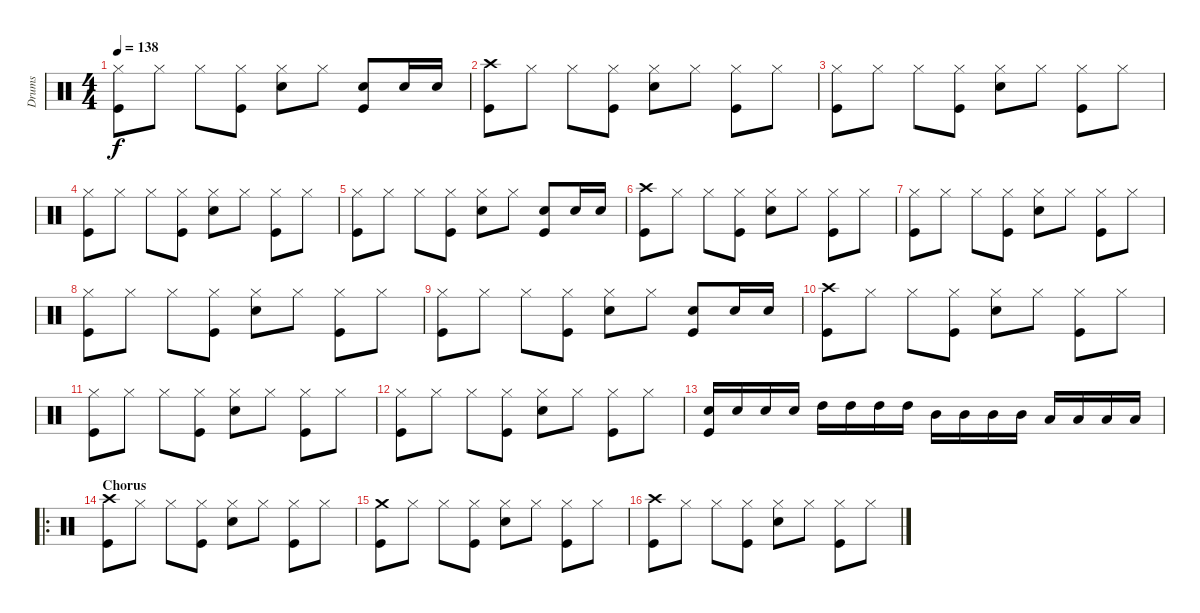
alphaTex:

\track ("Drums" "Drums") {instrument percussion}
\staff {score}
\articulation defaults
\ts (4 4)
\tempo 138
\clef neutral
\ks c
("Hi-Hat (closed)" "Kick (hit)").8{dy f} "Hi-Hat (closed)".8 "Hi-Hat (closed)".8 ("Hi-Hat (closed)" "Kick (hit)").8 ("Hi-Hat (closed)" "Snare (hit) 2").8 "Hi-Hat (closed)".8 ("Snare (hit) 2" "Kick (hit)").8 "Snare (hit) 2".16 "Snare (hit) 2".16 |
("Crash high (hit)" "Kick (hit)").8 "Hi-Hat (closed)".8 "Hi-Hat (closed)".8 ("Hi-Hat (closed)" "Kick (hit)").8 ("Hi-Hat (closed)" "Snare (hit) 2").8 "Hi-Hat (closed)".8 ("Hi-Hat (closed)" "Kick (hit)").8 "Hi-Hat (closed)".8 |
("Hi-Hat (closed)" "Kick (hit)").8 "Hi-Hat (closed)".8 "Hi-Hat (closed)".8 ("Hi-Hat (closed)" "Kick (hit)").8 ("Hi-Hat (closed)" "Snare (hit) 2").8 "Hi-Hat (closed)".8 ("Hi-Hat (closed)" "Kick (hit)").8 "Hi-Hat (closed)".8 |
("Hi-Hat (closed)" "Kick (hit)").8 "Hi-Hat (closed)".8 "Hi-Hat (closed)".8 ("Hi-Hat (closed)" "Kick (hit)").8 ("Hi-Hat (closed)" "Snare (hit) 2").8 "Hi-Hat (closed)".8 ("Hi-Hat (closed)" "Kick (hit)").8 "Hi-Hat (closed)".8 |
("Hi-Hat (closed)" "Kick (hit)").8 "Hi-Hat (closed)".8 "Hi-Hat (closed)".8 ("Hi-Hat (closed)" "Kick (hit)").8 ("Hi-Hat (closed)" "Snare (hit) 2").8 "Hi-Hat (closed)".8 ("Snare (hit) 2" "Kick (hit)").8 "Snare (hit) 2".16 "Snare (hit) 2".16 |
("Crash high (hit)" "Kick (hit)").8 "Hi-Hat (closed)".8 "Hi-Hat (closed)".8 ("Hi-Hat (closed)" "Kick (hit)").8 ("Hi-Hat (closed)" "Snare (hit) 2").8 "Hi-Hat (closed)".8 ("Hi-Hat (closed)" "Kick (hit)").8 "Hi-Hat (closed)".8 |
("Hi-Hat (closed)" "Kick (hit)").8 "Hi-Hat (closed)".8 "Hi-Hat (closed)".8 ("Hi-Hat (closed)" "Kick (hit)").8 ("Hi-Hat (closed)" "Snare (hit) 2").8 "Hi-Hat (closed)".8 ("Hi-Hat (closed)" "Kick (hit)").8 "Hi-Hat (closed)".8 |
("Hi-Hat (closed)" "Kick (hit)").8 "Hi-Hat (closed)".8 "Hi-Hat (closed)".8 ("Hi-Hat (closed)" "Kick (hit)").8 ("Hi-Hat (closed)" "Snare (hit) 2").8 "Hi-Hat (closed)".8 ("Hi-Hat (closed)" "Kick (hit)").8 "Hi-Hat (closed)".8 |
("Hi-Hat (closed)" "Kick (hit)").8 "Hi-Hat (closed)".8 "Hi-Hat (closed)".8 ("Hi-Hat (closed)" "Kick (hit)").8 ("Hi-Hat (closed)" "Snare (hit) 2").8 "Hi-Hat (closed)".8 ("Snare (hit) 2" "Kick (hit)").8 "Snare (hit) 2".16 "Snare (hit) 2".16 |
("Crash high (hit)" "Kick (hit)").8 "Hi-Hat (closed)".8 "Hi-Hat (closed)".8 ("Hi-Hat (closed)" "Kick (hit)").8 ("Hi-Hat (closed)" "Snare (hit) 2").8 "Hi-Hat (closed)".8 ("Hi-Hat (closed)" "Kick (hit)").8 "Hi-Hat (closed)".8 |
("Hi-Hat (closed)" "Kick (hit)").8 "Hi-Hat (closed)".8 "Hi-Hat (closed)".8 ("Hi-Hat (closed)" "Kick (hit)").8 ("Hi-Hat (closed)" "Snare (hit) 2").8 "Hi-Hat (closed)".8 ("Hi-Hat (closed)" "Kick (hit)").8 "Hi-Hat (closed)".8 |
("Hi-Hat (closed)" "Kick (hit)").8 "Hi-Hat (closed)".8 "Hi-Hat (closed)".8 ("Hi-Hat (closed)" "Kick (hit)").8 ("Hi-Hat (closed)" "Snare (hit) 2").8 "Hi-Hat (closed)".8 ("Hi-Hat (closed)" "Kick (hit)").8 "Hi-Hat (closed)".8 |
("Snare (hit) 2" "Kick (hit)").16 "Snare (hit) 2".16 "Snare (hit) 2".16 "Snare (hit) 2".16 "High Tom (hit)".16 "High Tom (hit)".16 "High Tom (hit)".16 "High Tom (hit)".16 "Mid Tom (hit)".16 "Mid Tom (hit)".16 "Mid Tom (hit)".16 "Mid Tom (hit)".16 "Low Tom (hit)".16 "Low Tom (hit)".16 "Low Tom (hit)".16 "Low Tom (hit)".16 |
\ro
\section ("" "Chorus")
("Crash high (hit)" "Kick (hit)").8 "Hi-Hat (closed)".8 "Hi-Hat (closed)".8 ("Hi-Hat (closed)" "Kick (hit)").8 ("Hi-Hat (closed)" "Snare (hit) 2").8 "Hi-Hat (closed)".8 ("Hi-Hat (closed)" "Kick (hit)").8 "Hi-Hat (closed)".8 |
("Crash medium (hit)" "Kick (hit)").8 "Hi-Hat (closed)".8 "Hi-Hat (closed)".8 ("Hi-Hat (closed)" "Kick (hit)").8 ("Hi-Hat (closed)" "Snare (hit) 2").8 "Hi-Hat (closed)".8 ("Hi-Hat (closed)" "Kick (hit)").8 "Hi-Hat (closed)".8 |
("Crash high (hit)" "Kick (hit)").8 "Hi-Hat (closed)".8 "Hi-Hat (closed)".8 ("Hi-Hat (closed)" "Kick (hit)").8 ("Hi-Hat (closed)" "Snare (hit) 2").8 "Hi-Hat (closed)".8 ("Hi-Hat (closed)" "Kick (hit)").8 "Hi-Hat (closed)".8
